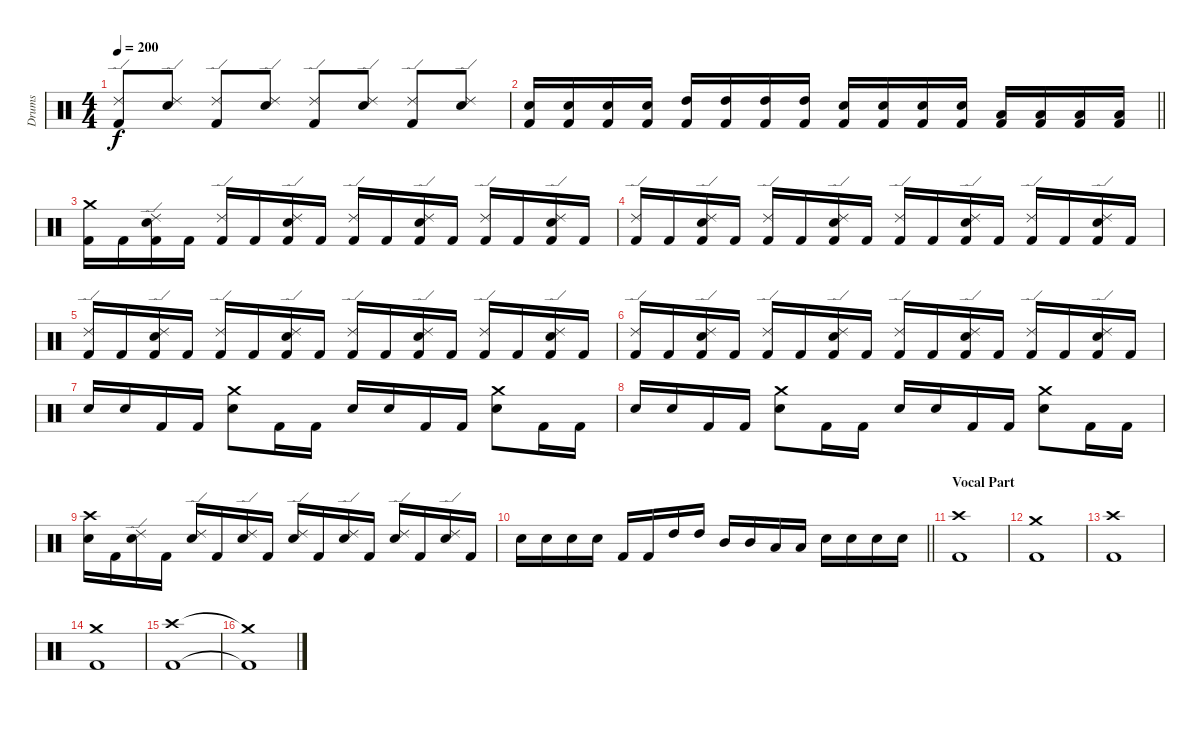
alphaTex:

\track ("Drums" "Drums") {instrument percussion}
\staff {score}
\articulation defaults
\ts (4 4)
\tempo 200
\clef neutral
\ks c
("Kick (hit) 2" "Ride (edge) 2").8{dy f} ("Snare (hit) 2" "Ride (edge) 2").8 ("Kick (hit) 2" "Ride (edge) 2").8 ("Snare (hit) 2" "Ride (edge) 2").8 ("Kick (hit) 2" "Ride (edge) 2").8 ("Snare (hit) 2" "Ride (edge) 2").8 ("Kick (hit) 2" "Ride (edge) 2").8 ("Snare (hit) 2" "Ride (edge) 2").8 |
\barLineRight lightlight
("Kick (hit) 2" "Snare (hit) 2").16 ("Kick (hit) 2" "Snare (hit) 2").16 ("Kick (hit) 2" "Snare (hit) 2").16 ("Kick (hit) 2" "Snare (hit) 2").16 ("Kick (hit) 2" "High Tom (hit)").16 ("Kick (hit) 2" "High Tom (hit)").16 ("Kick (hit) 2" "High Tom (hit)").16 ("Kick (hit) 2" "High Tom (hit)").16 ("Kick (hit) 2" "Snare (hit) 2").16 ("Kick (hit) 2" "Snare (hit) 2").16 ("Kick (hit) 2" "Snare (hit) 2").16 ("Kick (hit) 2" "Snare (hit) 2").16 ("Kick (hit) 2" "Low Tom (hit)").16 ("Kick (hit) 2" "Low Tom (hit)").16 ("Kick (hit) 2" "Low Tom (hit)").16 ("Kick (hit) 2" "Low Tom (hit)").16 |
\section ("" "")
("Kick (hit) 2" "Crash medium (hit)").16 "Kick (hit) 2".16 ("Kick (hit) 2" "Snare (hit) 2" "Ride (edge) 2").16 "Kick (hit) 2".16 ("Kick (hit) 2" "Ride (edge) 2").16 "Kick (hit) 2".16 ("Kick (hit) 2" "Snare (hit) 2" "Ride (edge) 2").16 "Kick (hit) 2".16 ("Kick (hit) 2" "Ride (edge) 2").16 "Kick (hit) 2".16 ("Kick (hit) 2" "Snare (hit) 2" "Ride (edge) 2").16 "Kick (hit) 2".16 ("Kick (hit) 2" "Ride (edge) 2").16 "Kick (hit) 2".16 ("Kick (hit) 2" "Snare (hit) 2" "Ride (edge) 2").16 "Kick (hit) 2".16 |
("Kick (hit) 2" "Ride (edge) 2").16 "Kick (hit) 2".16 ("Kick (hit) 2" "Snare (hit) 2" "Ride (edge) 2").16 "Kick (hit) 2".16 ("Kick (hit) 2" "Ride (edge) 2").16 "Kick (hit) 2".16 ("Kick (hit) 2" "Snare (hit) 2" "Ride (edge) 2").16 "Kick (hit) 2".16 ("Kick (hit) 2" "Ride (edge) 2").16 "Kick (hit) 2".16 ("Kick (hit) 2" "Snare (hit) 2" "Ride (edge) 2").16 "Kick (hit) 2".16 ("Kick (hit) 2" "Ride (edge) 2").16 "Kick (hit) 2".16 ("Kick (hit) 2" "Snare (hit) 2" "Ride (edge) 2").16 "Kick (hit) 2".16 |
("Kick (hit) 2" "Ride (edge) 2").16 "Kick (hit) 2".16 ("Kick (hit) 2" "Snare (hit) 2" "Ride (edge) 2").16 "Kick (hit) 2".16 ("Kick (hit) 2" "Ride (edge) 2").16 "Kick (hit) 2".16 ("Kick (hit) 2" "Snare (hit) 2" "Ride (edge) 2").16 "Kick (hit) 2".16 ("Kick (hit) 2" "Ride (edge) 2").16 "Kick (hit) 2".16 ("Kick (hit) 2" "Snare (hit) 2" "Ride (edge) 2").16 "Kick (hit) 2".16 ("Kick (hit) 2" "Ride (edge) 2").16 "Kick (hit) 2".16 ("Kick (hit) 2" "Snare (hit) 2" "Ride (edge) 2").16 "Kick (hit) 2".16 |
("Kick (hit) 2" "Ride (edge) 2").16 "Kick (hit) 2".16 ("Kick (hit) 2" "Snare (hit) 2" "Ride (edge) 2").16 "Kick (hit) 2".16 ("Kick (hit) 2" "Ride (edge) 2").16 "Kick (hit) 2".16 ("Kick (hit) 2" "Snare (hit) 2" "Ride (edge) 2").16 "Kick (hit) 2".16 ("Kick (hit) 2" "Ride (edge) 2").16 "Kick (hit) 2".16 ("Kick (hit) 2" "Snare (hit) 2" "Ride (edge) 2").16 "Kick (hit) 2".16 ("Kick (hit) 2" "Ride (edge) 2").16 "Kick (hit) 2".16 ("Kick (hit) 2" "Snare (hit) 2" "Ride (edge) 2").16 "Kick (hit) 2".16 |
"Snare (hit) 2".16 "Snare (hit) 2".16 "Kick (hit) 2".16 "Kick (hit) 2".16 ("Snare (hit) 2" "Crash medium (hit)").8 "Kick (hit) 2".16 "Kick (hit) 2".16 "Snare (hit) 2".16 "Snare (hit) 2".16 "Kick (hit) 2".16 "Kick (hit) 2".16 ("Snare (hit) 2" "Crash medium (hit)").8 "Kick (hit) 2".16 "Kick (hit) 2".16 |
"Snare (hit) 2".16 "Snare (hit) 2".16 "Kick (hit) 2".16 "Kick (hit) 2".16 ("Snare (hit) 2" "Crash medium (hit)").8 "Kick (hit) 2".16 "Kick (hit) 2".16 "Snare (hit) 2".16 "Snare (hit) 2".16 "Kick (hit) 2".16 "Kick (hit) 2".16 ("Snare (hit) 2" "Crash medium (hit)").8 "Kick (hit) 2".16 "Kick (hit) 2".16 |
("Snare (hit) 2" "Crash high (hit)").16 "Kick (hit) 2".16 ("Snare (hit) 2" "Ride (edge) 2").16 "Kick (hit) 2".16 ("Snare (hit) 2" "Ride (edge) 2").16 "Kick (hit) 2".16 ("Snare (hit) 2" "Ride (edge) 2").16 "Kick (hit) 2".16 ("Snare (hit) 2" "Ride (edge) 2").16 "Kick (hit) 2".16 ("Snare (hit) 2" "Ride (edge) 2").16 "Kick (hit) 2".16 ("Snare (hit) 2" "Ride (edge) 2").16 "Kick (hit) 2".16 ("Snare (hit) 2" "Ride (edge) 2").16 "Kick (hit) 2".16 |
\barLineRight lightlight "Snare (hit) 2".16 "Snare (hit) 2".16 "Snare (hit) 2".16 "Snare (hit) 2".16 "Kick (hit) 2".16 "Kick (hit) 2".16 "High Tom (hit)".16 "High Tom (hit)".16 "Mid Tom (hit)".16 "Mid Tom (hit)".16 "Low Tom (hit)".16 "Low Tom (hit)".16 "Snare (hit) 2".16 "Snare (hit) 2".16 "Snare (hit) 2".16 "Snare (hit) 2".16
|
\section ("" "Vocal Part")
("Kick (hit) 2" "Crash high (hit)").1 |
("Kick (hit) 2" "Crash medium (hit)").1 |
("Kick (hit) 2" "Crash high (hit)").1 |
("Kick (hit) 2" "Crash medium (hit)").1 |
("Kick (hit) 2" "Crash high (hit)").1 |
("Kick (hit) 2"{t} "Crash medium (hit)"{t}).1
